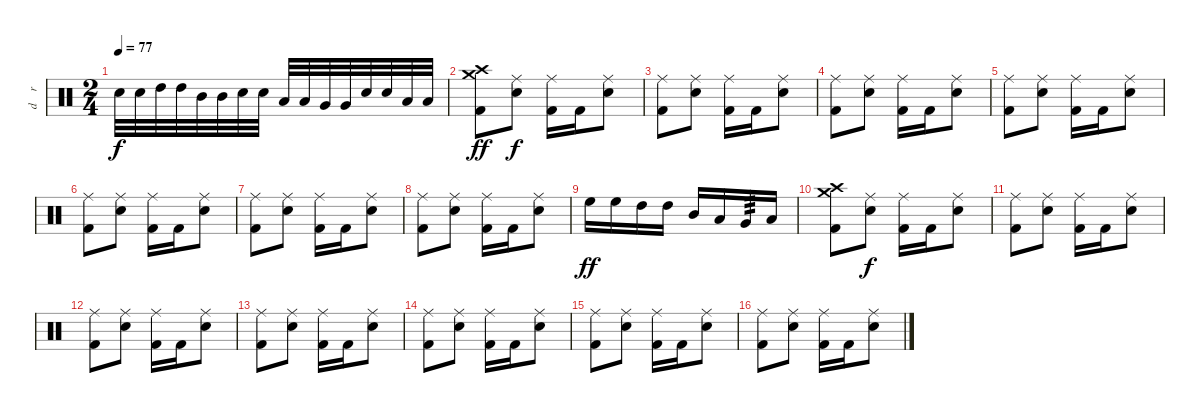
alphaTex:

\track ("d    r     u    m    s" "d    r    ") {instrument percussion}
\staff {score}
\articulation defaults
\ts (2 4)
\tempo 77
\clef neutral
\ks c "Snare (hit) 2".32{dy f} "Snare (hit) 2".32 "High Tom (hit)".32 "High Tom (hit)".32 "Mid Tom (hit)".32 "Mid Tom (hit)".32 "Snare (hit) 2".32 "Snare (hit) 2".32 "Low Tom (hit)".32 "Low Tom (hit)".32 "Very Low Tom (hit)".32 "Very Low Tom (hit)".32 "Snare (hit) 2".32 "Snare (hit) 2".32 "Low Floor Tom (hit)".32 "Low Floor Tom (hit)".32
|
("Crash high (hit)" "Crash medium (hit)" "Kick (hit) 2").8{dy ff} ("Ride (middle)" "Electric Snare (hit)").8{dy f} ("Ride (middle)" "Kick (hit) 2").16 "Kick (hit) 2".16 ("Ride (middle)" "Electric Snare (hit)").8 |
("Ride (middle)" "Kick (hit) 2").8 ("Ride (middle)" "Electric Snare (hit)").8 ("Ride (middle)" "Kick (hit) 2").16 "Kick (hit) 2".16 ("Ride (middle)" "Electric Snare (hit)").8 |
("Ride (middle)" "Kick (hit) 2").8 ("Ride (middle)" "Electric Snare (hit)").8 ("Ride (middle)" "Kick (hit) 2").16 "Kick (hit) 2".16 ("Ride (middle)" "Electric Snare (hit)").8 |
("Ride (middle)" "Kick (hit) 2").8 ("Ride (middle)" "Electric Snare (hit)").8 ("Ride (middle)" "Kick (hit) 2").16 "Kick (hit) 2".16 ("Ride (middle)" "Electric Snare (hit)").8 |
("Ride (middle)" "Kick (hit) 2").8 ("Ride (middle)" "Electric Snare (hit)").8 ("Ride (middle)" "Kick (hit) 2").16 "Kick (hit) 2".16 ("Ride (middle)" "Electric Snare (hit)").8 |
("Ride (middle)" "Kick (hit) 2").8 ("Ride (middle)" "Electric Snare (hit)").8 ("Ride (middle)" "Kick (hit) 2").16 "Kick (hit) 2".16 ("Ride (middle)" "Electric Snare (hit)").8 |
("Ride (middle)" "Kick (hit) 2").8 ("Ride (middle)" "Electric Snare (hit)").8 ("Ride (middle)" "Kick (hit) 2").16 "Kick (hit) 2".16 ("Ride (middle)" "Electric Snare (hit)").8 |
"High Floor Tom (hit)".16{dy ff} "High Floor Tom (hit)".16 "High Tom (hit)".16 "High Tom (hit)".16 "Mid Tom (hit)".16 "Low Tom (hit)".16 "Very Low Tom (hit)".16{tp 3} "Low Floor Tom (hit)".16 |
("Crash high (hit)" "Crash medium (hit)" "Kick (hit) 2").8 ("Ride (middle)" "Electric Snare (hit)").8{dy f} ("Ride (middle)" "Kick (hit) 2").16 "Kick (hit) 2".16 ("Ride (middle)" "Electric Snare (hit)").8 |
("Ride (middle)" "Kick (hit) 2").8 ("Ride (middle)" "Electric Snare (hit)").8 ("Ride (middle)" "Kick (hit) 2").16 "Kick (hit) 2".16 ("Ride (middle)" "Electric Snare (hit)").8 |
("Ride (middle)" "Kick (hit) 2").8 ("Ride (middle)" "Electric Snare (hit)").8 ("Ride (middle)" "Kick (hit) 2").16 "Kick (hit) 2".16 ("Ride (middle)" "Electric Snare (hit)").8 |
("Ride (middle)" "Kick (hit) 2").8 ("Ride (middle)" "Electric Snare (hit)").8 ("Ride (middle)" "Kick (hit) 2").16 "Kick (hit) 2".16 ("Ride (middle)" "Electric Snare (hit)").8 |
("Ride (middle)" "Kick (hit) 2").8 ("Ride (middle)" "Electric Snare (hit)").8 ("Ride (middle)" "Kick (hit) 2").16 "Kick (hit) 2".16 ("Ride (middle)" "Electric Snare (hit)").8 |
("Ride (middle)" "Kick (hit) 2").8 ("Ride (middle)" "Electric Snare (hit)").8 ("Ride (middle)" "Kick (hit) 2").16 "Kick (hit) 2".16 ("Ride (middle)" "Electric Snare (hit)").8 |
("Ride (middle)" "Kick (hit) 2").8 ("Ride (middle)" "Electric Snare (hit)").8 ("Ride (middle)" "Kick (hit) 2").16 "Kick (hit) 2".16 ("Ride (middle)" "Electric Snare (hit)").8
